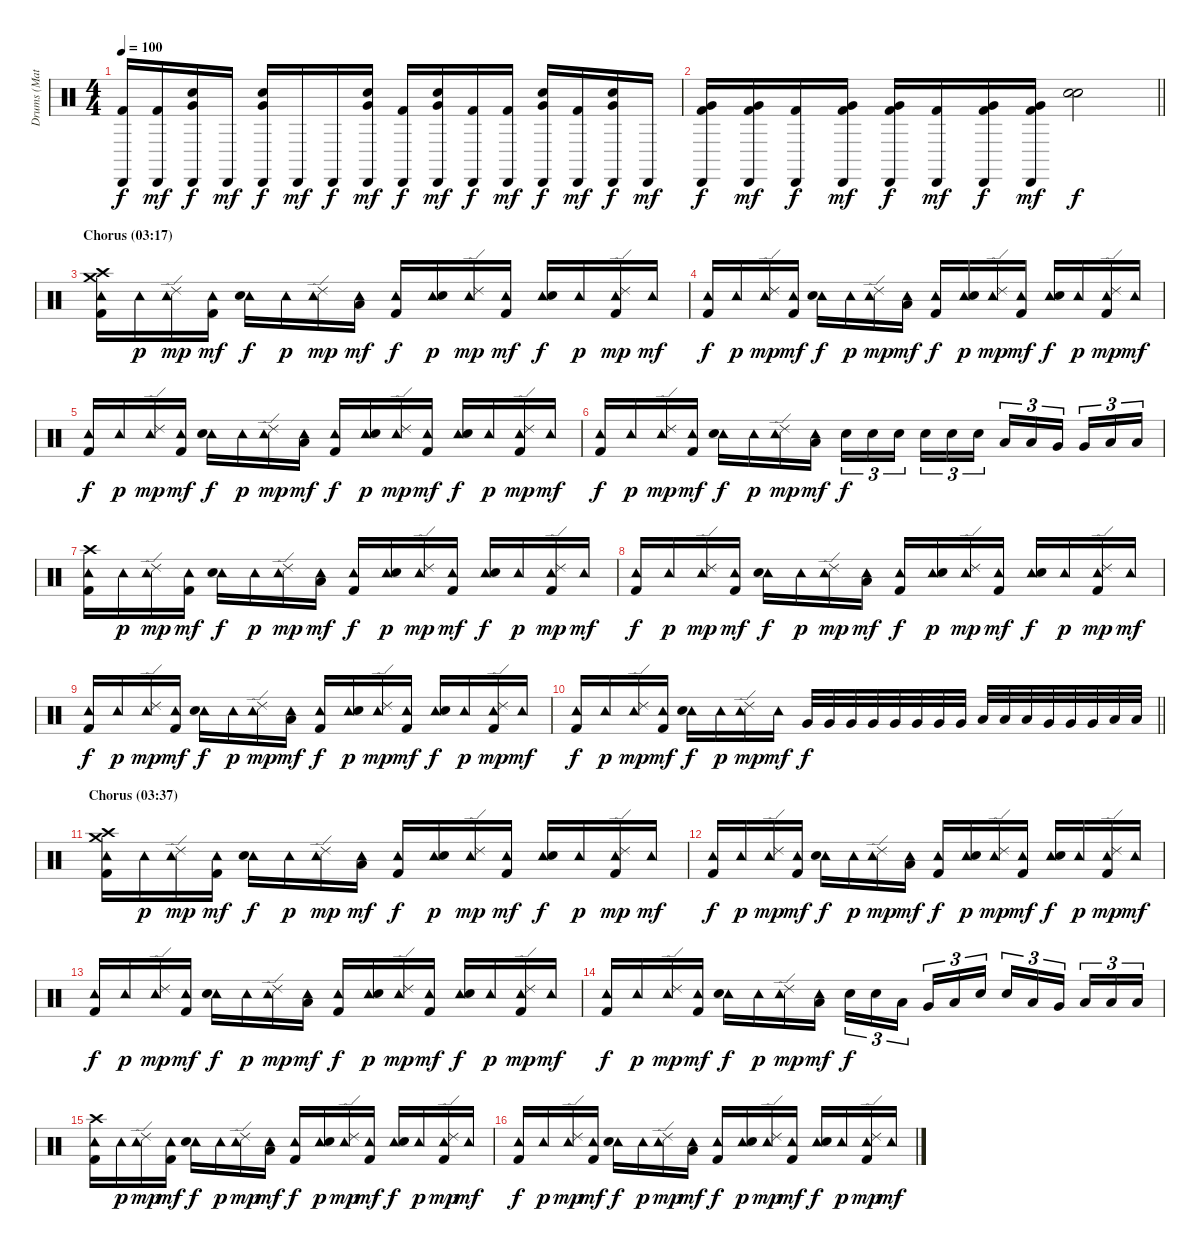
\track ("Drums (Matt Sorum)" "Drums (Mat") {instrument percussion}
\staff {score}
\articulation defaults
\ts (4 4)
\tempo 100
\clef neutral
\ks c
("Cabasa (hit)" "Kick (hit) 2").16{dy f} ("Cabasa (hit)" "Kick (hit) 2").16{dy mf} ("Cabasa (hit)" "Very Low Tom (hit)" "Electric Snare (hit)").16{dy f} "Cabasa (hit)".16{dy mf} ("Cabasa (hit)" "Very Low Tom (hit)" "Electric Snare (hit)").16{dy f} "Cabasa (hit)".16{dy mf} "Cabasa (hit)".16{dy f} ("Cabasa (hit)" "Very Low Tom (hit)" "Electric Snare (hit)").16{dy mf} ("Cabasa (hit)" "Kick (hit) 2").16{dy f} ("Cabasa (hit)" "Very Low Tom (hit)" "Electric Snare (hit)").16{dy mf} ("Cabasa (hit)" "Kick (hit) 2").16{dy f} ("Cabasa (hit)" "Kick (hit) 2").16{dy mf} ("Cabasa (hit)" "Very Low Tom (hit)" "Electric Snare (hit)").16{dy f} ("Cabasa (hit)" "Kick (hit) 2").16{dy mf} ("Cabasa (hit)" "Very Low Tom (hit)" "Electric Snare (hit)").16{dy f} "Cabasa (hit)".16{dy mf} |
\barLineRight lightlight
("Cabasa (hit)" "Very Low Tom (hit)" "Kick (hit) 2").16{dy f} ("Cabasa (hit)" "Very Low Tom (hit)" "Kick (hit) 2").16{dy mf} ("Cabasa (hit)" "Kick (hit) 2").16{dy f} ("Cabasa (hit)" "Very Low Tom (hit)" "Kick (hit) 2").16{dy mf} ("Cabasa (hit)" "Very Low Tom (hit)" "Kick (hit) 2").16{dy f} ("Cabasa (hit)" "Kick (hit) 2").16{dy mf} ("Cabasa (hit)" "Very Low Tom (hit)" "Kick (hit) 2").16{dy f} ("Cabasa (hit)" "Very Low Tom (hit)" "Kick (hit) 2").16{dy mf} ("Electric Snare (hit)" "Electric Snare (hit)").2{bd 240 dy f} |
\section ("" "Chorus (03:17)")
("Tambourine (hit)" "Crash high (hit)" "Crash medium (hit)" "Kick (hit) 2").16 "Tambourine (hit)".16{dy p} ("Tambourine (hit)" "Ride (edge) 2").16{dy mp} ("Tambourine (hit)" "Kick (hit) 2").16{dy mf} ("Tambourine (hit)" "Electric Snare (hit)").16{dy f} "Tambourine (hit)".16{dy p} ("Tambourine (hit)" "Ride (edge) 2").16{dy mp} ("Tambourine (hit)" "Low Tom (hit)").16{dy mf} ("Tambourine (hit)" "Kick (hit) 2").16{dy f} ("Tambourine (hit)" "Electric Snare (hit)").16{dy p} ("Tambourine (hit)" "Ride (edge) 2").16{dy mp} ("Tambourine (hit)" "Kick (hit) 2").16{dy mf} ("Tambourine (hit)" "Electric Snare (hit)").16{dy f} "Tambourine (hit)".16{dy p} ("Tambourine (hit)" "Ride (edge) 2" "Kick (hit) 2").16{dy mp} "Tambourine (hit)".16{dy mf} |
("Tambourine (hit)" "Kick (hit) 2").16{dy f} "Tambourine (hit)".16{dy p} ("Tambourine (hit)" "Ride (edge) 2").16{dy mp} ("Tambourine (hit)" "Kick (hit) 2").16{dy mf} ("Tambourine (hit)" "Electric Snare (hit)").16{dy f} "Tambourine (hit)".16{dy p} ("Tambourine (hit)" "Ride (edge) 2").16{dy mp} ("Tambourine (hit)" "Low Tom (hit)").16{dy mf} ("Tambourine (hit)" "Kick (hit) 2").16{dy f} ("Tambourine (hit)" "Electric Snare (hit)").16{dy p} ("Tambourine (hit)" "Ride (edge) 2").16{dy mp} ("Tambourine (hit)" "Kick (hit) 2").16{dy mf} ("Tambourine (hit)" "Electric Snare (hit)").16{dy f} "Tambourine (hit)".16{dy p} ("Tambourine (hit)" "Ride (edge) 2" "Kick (hit) 2").16{dy mp} "Tambourine (hit)".16{dy mf} |
("Tambourine (hit)" "Kick (hit) 2").16{dy f} "Tambourine (hit)".16{dy p} ("Tambourine (hit)" "Ride (edge) 2").16{dy mp} ("Tambourine (hit)" "Kick (hit) 2").16{dy mf} ("Tambourine (hit)" "Electric Snare (hit)").16{dy f} "Tambourine (hit)".16{dy p} ("Tambourine (hit)" "Ride (edge) 2").16{dy mp} ("Tambourine (hit)" "Low Tom (hit)").16{dy mf} ("Tambourine (hit)" "Kick (hit) 2").16{dy f} ("Tambourine (hit)" "Electric Snare (hit)").16{dy p} ("Tambourine (hit)" "Ride (edge) 2").16{dy mp} ("Tambourine (hit)" "Kick (hit) 2").16{dy mf} ("Tambourine (hit)" "Electric Snare (hit)").16{dy f} "Tambourine (hit)".16{dy p} ("Tambourine (hit)" "Ride (edge) 2" "Kick (hit) 2").16{dy mp} "Tambourine (hit)".16{dy mf} |
("Tambourine (hit)" "Kick (hit) 2").16{dy f} "Tambourine (hit)".16{dy p} ("Tambourine (hit)" "Ride (edge) 2").16{dy mp} ("Tambourine (hit)" "Kick (hit) 2").16{dy mf} ("Tambourine (hit)" "Electric Snare (hit)").16{dy f} "Tambourine (hit)".16{dy p} ("Tambourine (hit)" "Ride (edge) 2").16{dy mp} ("Tambourine (hit)" "Low Tom (hit)").16{dy mf} "Electric Snare (hit)".16{tu (3 2) dy f} "Electric Snare (hit)".16{tu (3 2)} "Electric Snare (hit)".16{tu (3 2) beam splitsecondary} "Electric Snare (hit)".16{tu (3 2)} "Electric Snare (hit)".16{tu (3 2)} "Electric Snare (hit)".16{tu (3 2)} "Low Tom (hit)".16{tu (3 2)} "Low Tom (hit)".16{tu (3 2)} "Very Low Tom (hit)".16{tu (3 2) beam splitsecondary} "Very Low Tom (hit)".16{tu (3 2)} "Low Floor Tom (hit)".16{tu (3 2)} "Low Floor Tom (hit)".16{tu (3 2)} |
("Tambourine (hit)" "Crash high (hit)" "Kick (hit) 2").16 "Tambourine (hit)".16{dy p} ("Tambourine (hit)" "Ride (edge) 2").16{dy mp} ("Tambourine (hit)" "Kick (hit) 2").16{dy mf} ("Tambourine (hit)" "Electric Snare (hit)").16{dy f} "Tambourine (hit)".16{dy p} ("Tambourine (hit)" "Ride (edge) 2").16{dy mp} ("Tambourine (hit)" "Low Tom (hit)").16{dy mf} ("Tambourine (hit)" "Kick (hit) 2").16{dy f} ("Tambourine (hit)" "Electric Snare (hit)").16{dy p} ("Tambourine (hit)" "Ride (edge) 2").16{dy mp} ("Tambourine (hit)" "Kick (hit) 2").16{dy mf} ("Tambourine (hit)" "Electric Snare (hit)").16{dy f} "Tambourine (hit)".16{dy p} ("Tambourine (hit)" "Ride (edge) 2" "Kick (hit) 2").16{dy mp} "Tambourine (hit)".16{dy mf} |
("Tambourine (hit)" "Kick (hit) 2").16{dy f} "Tambourine (hit)".16{dy p} ("Tambourine (hit)" "Ride (edge) 2").16{dy mp} ("Tambourine (hit)" "Kick (hit) 2").16{dy mf} ("Tambourine (hit)" "Electric Snare (hit)").16{dy f} "Tambourine (hit)".16{dy p} ("Tambourine (hit)" "Ride (edge) 2").16{dy mp} ("Tambourine (hit)" "Low Tom (hit)").16{dy mf} ("Tambourine (hit)" "Kick (hit) 2").16{dy f} ("Tambourine (hit)" "Electric Snare (hit)").16{dy p} ("Tambourine (hit)" "Ride (edge) 2").16{dy mp} ("Tambourine (hit)" "Kick (hit) 2").16{dy mf} ("Tambourine (hit)" "Electric Snare (hit)").16{dy f} "Tambourine (hit)".16{dy p} ("Tambourine (hit)" "Ride (edge) 2" "Kick (hit) 2").16{dy mp} "Tambourine (hit)".16{dy mf} |
("Tambourine (hit)" "Kick (hit) 2").16{dy f} "Tambourine (hit)".16{dy p} ("Tambourine (hit)" "Ride (edge) 2").16{dy mp} ("Tambourine (hit)" "Kick (hit) 2").16{dy mf} ("Tambourine (hit)" "Electric Snare (hit)").16{dy f} "Tambourine (hit)".16{dy p} ("Tambourine (hit)" "Ride (edge) 2").16{dy mp} ("Tambourine (hit)" "Low Tom (hit)").16{dy mf} ("Tambourine (hit)" "Kick (hit) 2").16{dy f} ("Tambourine (hit)" "Electric Snare (hit)").16{dy p} ("Tambourine (hit)" "Ride (edge) 2").16{dy mp} ("Tambourine (hit)" "Kick (hit) 2").16{dy mf} ("Tambourine (hit)" "Electric Snare (hit)").16{dy f} "Tambourine (hit)".16{dy p} ("Tambourine (hit)" "Ride (edge) 2" "Kick (hit) 2").16{dy mp} "Tambourine (hit)".16{dy mf} |
\barLineRight lightlight
("Tambourine (hit)" "Kick (hit) 2").16{dy f} "Tambourine (hit)".16{dy p} ("Tambourine (hit)" "Ride (edge) 2").16{dy mp} ("Tambourine (hit)" "Kick (hit) 2").16{dy mf} ("Tambourine (hit)" "Electric Snare (hit)").16{dy f} "Tambourine (hit)".16{dy p} ("Tambourine (hit)" "Ride (edge) 2").16{dy mp} "Tambourine (hit)".16{dy mf} "Very Low Tom (hit)".32{dy f} "Very Low Tom (hit)".32 "Very Low Tom (hit)".32 "Very Low Tom (hit)".32 "Very Low Tom (hit)".32 "Very Low Tom (hit)".32 "Very Low Tom (hit)".32 "Very Low Tom (hit)".32 "Low Tom (hit)".32 "Low Tom (hit)".32 "Low Tom (hit)".32 "Very Low Tom (hit)".32 "Very Low Tom (hit)".32 "Very Low Tom (hit)".32 "Low Floor Tom (hit)".32 "Low Floor Tom (hit)".32 |
\section ("" "Chorus (03:37)")
("Tambourine (hit)" "Crash high (hit)" "Crash medium (hit)" "Kick (hit) 2").16 "Tambourine (hit)".16{dy p} ("Tambourine (hit)" "Ride (edge) 2").16{dy mp} ("Tambourine (hit)" "Kick (hit) 2").16{dy mf} ("Tambourine (hit)" "Electric Snare (hit)").16{dy f} "Tambourine (hit)".16{dy p} ("Tambourine (hit)" "Ride (edge) 2").16{dy mp} ("Tambourine (hit)" "Low Tom (hit)").16{dy mf} ("Tambourine (hit)" "Kick (hit) 2").16{dy f} ("Tambourine (hit)" "Electric Snare (hit)").16{dy p} ("Tambourine (hit)" "Ride (edge) 2").16{dy mp} ("Tambourine (hit)" "Kick (hit) 2").16{dy mf} ("Tambourine (hit)" "Electric Snare (hit)").16{dy f} "Tambourine (hit)".16{dy p} ("Tambourine (hit)" "Ride (edge) 2" "Kick (hit) 2").16{dy mp} "Tambourine (hit)".16{dy mf} |
("Tambourine (hit)" "Kick (hit) 2").16{dy f} "Tambourine (hit)".16{dy p} ("Tambourine (hit)" "Ride (edge) 2").16{dy mp} ("Tambourine (hit)" "Kick (hit) 2").16{dy mf} ("Tambourine (hit)" "Electric Snare (hit)").16{dy f} "Tambourine (hit)".16{dy p} ("Tambourine (hit)" "Ride (edge) 2").16{dy mp} ("Tambourine (hit)" "Low Tom (hit)").16{dy mf} ("Tambourine (hit)" "Kick (hit) 2").16{dy f} ("Tambourine (hit)" "Electric Snare (hit)").16{dy p} ("Tambourine (hit)" "Ride (edge) 2").16{dy mp} ("Tambourine (hit)" "Kick (hit) 2").16{dy mf} ("Tambourine (hit)" "Electric Snare (hit)").16{dy f} "Tambourine (hit)".16{dy p} ("Tambourine (hit)" "Ride (edge) 2" "Kick (hit) 2").16{dy mp} "Tambourine (hit)".16{dy mf} |
("Tambourine (hit)" "Kick (hit) 2").16{dy f} "Tambourine (hit)".16{dy p} ("Tambourine (hit)" "Ride (edge) 2").16{dy mp} ("Tambourine (hit)" "Kick (hit) 2").16{dy mf} ("Tambourine (hit)" "Electric Snare (hit)").16{dy f} "Tambourine (hit)".16{dy p} ("Tambourine (hit)" "Ride (edge) 2").16{dy mp} ("Tambourine (hit)" "Low Tom (hit)").16{dy mf} ("Tambourine (hit)" "Kick (hit) 2").16{dy f} ("Tambourine (hit)" "Electric Snare (hit)").16{dy p} ("Tambourine (hit)" "Ride (edge) 2").16{dy mp} ("Tambourine (hit)" "Kick (hit) 2").16{dy mf} ("Tambourine (hit)" "Electric Snare (hit)").16{dy f} "Tambourine (hit)".16{dy p} ("Tambourine (hit)" "Ride (edge) 2" "Kick (hit) 2").16{dy mp} "Tambourine (hit)".16{dy mf} |
("Tambourine (hit)" "Kick (hit) 2").16{dy f} "Tambourine (hit)".16{dy p} ("Tambourine (hit)" "Ride (edge) 2").16{dy mp} ("Tambourine (hit)" "Kick (hit) 2").16{dy mf} ("Tambourine (hit)" "Electric Snare (hit)").16{dy f} "Tambourine (hit)".16{dy p} ("Tambourine (hit)" "Ride (edge) 2").16{dy mp} ("Tambourine (hit)" "Low Tom (hit)").16{dy mf} "Electric Snare (hit)".16{tu (3 2) dy f} "Electric Snare (hit)".16{tu (3 2)} "Low Tom (hit)".16{tu (3 2) beam splitsecondary} "Very Low Tom (hit)".16{tu (3 2)} "Low Floor Tom (hit)".16{tu (3 2)} "Electric Snare (hit)".16{tu (3 2)} "Electric Snare (hit)".16{tu (3 2)} "Low Tom (hit)".16{tu (3 2)} "Very Low Tom (hit)".16{tu (3 2) beam splitsecondary} "Low Floor Tom (hit)".16{tu (3 2)} "Low Floor Tom (hit)".16{tu (3 2)} "Low Floor Tom (hit)".16{tu (3 2)} |
("Tambourine (hit)" "Crash high (hit)" "Kick (hit) 2").16 "Tambourine (hit)".16{dy p} ("Tambourine (hit)" "Ride (edge) 2").16{dy mp} ("Tambourine (hit)" "Kick (hit) 2").16{dy mf} ("Tambourine (hit)" "Electric Snare (hit)").16{dy f} "Tambourine (hit)".16{dy p} ("Tambourine (hit)" "Ride (edge) 2").16{dy mp} ("Tambourine (hit)" "Low Tom (hit)").16{dy mf} ("Tambourine (hit)" "Kick (hit) 2").16{dy f} ("Tambourine (hit)" "Electric Snare (hit)").16{dy p} ("Tambourine (hit)" "Ride (edge) 2").16{dy mp} ("Tambourine (hit)" "Kick (hit) 2").16{dy mf} ("Tambourine (hit)" "Electric Snare (hit)").16{dy f} "Tambourine (hit)".16{dy p} ("Tambourine (hit)" "Ride (edge) 2" "Kick (hit) 2").16{dy mp} "Tambourine (hit)".16{dy mf} |
("Tambourine (hit)" "Kick (hit) 2").16{dy f} "Tambourine (hit)".16{dy p} ("Tambourine (hit)" "Ride (edge) 2").16{dy mp} ("Tambourine (hit)" "Kick (hit) 2").16{dy mf} ("Tambourine (hit)" "Electric Snare (hit)").16{dy f} "Tambourine (hit)".16{dy p} ("Tambourine (hit)" "Ride (edge) 2").16{dy mp} ("Tambourine (hit)" "Low Tom (hit)").16{dy mf} ("Tambourine (hit)" "Kick (hit) 2").16{dy f} ("Tambourine (hit)" "Electric Snare (hit)").16{dy p} ("Tambourine (hit)" "Ride (edge) 2").16{dy mp} ("Tambourine (hit)" "Kick (hit) 2").16{dy mf} ("Tambourine (hit)" "Electric Snare (hit)").16{dy f} "Tambourine (hit)".16{dy p} ("Tambourine (hit)" "Ride (edge) 2" "Kick (hit) 2").16{dy mp} "Tambourine (hit)".16{dy mf}
